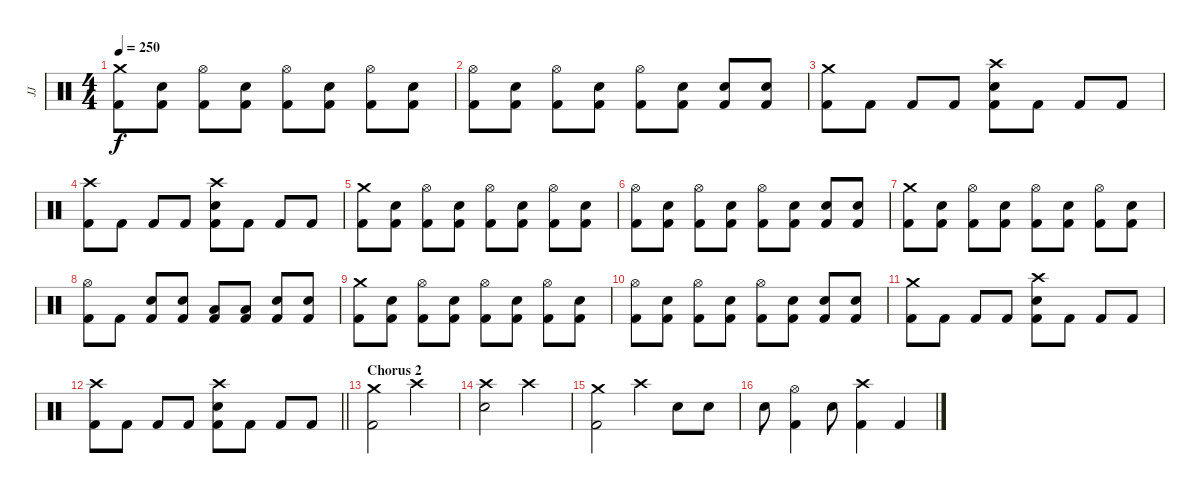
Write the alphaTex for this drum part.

\track ("JJ" "JJ") {instrument percussion}
\staff {score}
\articulation defaults
\ts (4 4)
\tempo 250
\clef neutral
\ks c
("Crash medium (hit)" "Kick (hit) 2").8{dy f} ("Electric Snare (hit)" "Kick (hit) 2").8 ("Hi-Hat (open)" "Kick (hit) 2").8 ("Electric Snare (hit)" "Kick (hit) 2").8 ("Hi-Hat (open)" "Kick (hit) 2").8 ("Electric Snare (hit)" "Kick (hit) 2").8 ("Hi-Hat (open)" "Kick (hit) 2").8 ("Electric Snare (hit)" "Kick (hit) 2").8 |
("Hi-Hat (open)" "Kick (hit) 2").8 ("Electric Snare (hit)" "Kick (hit) 2").8 ("Hi-Hat (open)" "Kick (hit) 2").8 ("Electric Snare (hit)" "Kick (hit) 2").8 ("Hi-Hat (open)" "Kick (hit) 2").8 ("Electric Snare (hit)" "Kick (hit) 2").8 ("Electric Snare (hit)" "Kick (hit) 2").8 ("Electric Snare (hit)" "Kick (hit) 2").8 |
("Crash medium (hit)" "Kick (hit) 2").8 "Kick (hit) 2".8 "Kick (hit) 2".8 "Kick (hit) 2".8 ("Crash high (hit)" "Electric Snare (hit)" "Kick (hit) 2").8 "Kick (hit) 2".8 "Kick (hit) 2".8 "Kick (hit) 2".8 |
("Crash high (hit)" "Kick (hit) 2").8 "Kick (hit) 2".8 "Kick (hit) 2".8 "Kick (hit) 2".8 ("Crash high (hit)" "Electric Snare (hit)" "Kick (hit) 2").8 "Kick (hit) 2".8 "Kick (hit) 2".8 "Kick (hit) 2".8 |
("Crash medium (hit)" "Kick (hit) 2").8 ("Electric Snare (hit)" "Kick (hit) 2").8 ("Hi-Hat (open)" "Kick (hit) 2").8 ("Electric Snare (hit)" "Kick (hit) 2").8 ("Hi-Hat (open)" "Kick (hit) 2").8 ("Electric Snare (hit)" "Kick (hit) 2").8 ("Hi-Hat (open)" "Kick (hit) 2").8 ("Electric Snare (hit)" "Kick (hit) 2").8 |
("Hi-Hat (open)" "Kick (hit) 2").8 ("Electric Snare (hit)" "Kick (hit) 2").8 ("Hi-Hat (open)" "Kick (hit) 2").8 ("Electric Snare (hit)" "Kick (hit) 2").8 ("Hi-Hat (open)" "Kick (hit) 2").8 ("Electric Snare (hit)" "Kick (hit) 2").8 ("Electric Snare (hit)" "Kick (hit) 2").8 ("Electric Snare (hit)" "Kick (hit) 2").8 |
("Crash medium (hit)" "Kick (hit) 2").8 ("Electric Snare (hit)" "Kick (hit) 2").8 ("Hi-Hat (open)" "Kick (hit) 2").8 ("Electric Snare (hit)" "Kick (hit) 2").8 ("Hi-Hat (open)" "Kick (hit) 2").8 ("Electric Snare (hit)" "Kick (hit) 2").8 ("Hi-Hat (open)" "Kick (hit) 2").8 ("Electric Snare (hit)" "Kick (hit) 2").8 |
("Hi-Hat (open)" "Kick (hit) 2").8 "Kick (hit) 2".8 ("Electric Snare (hit)" "Kick (hit) 2").8 ("Electric Snare (hit)" "Kick (hit) 2").8 ("Low Floor Tom (hit)" "Kick (hit) 2").8 ("Low Floor Tom (hit)" "Kick (hit) 2").8 ("Electric Snare (hit)" "Kick (hit) 2").8 ("Electric Snare (hit)" "Kick (hit) 2").8 |
("Crash medium (hit)" "Kick (hit) 2").8 ("Electric Snare (hit)" "Kick (hit) 2").8 ("Hi-Hat (open)" "Kick (hit) 2").8 ("Electric Snare (hit)" "Kick (hit) 2").8 ("Hi-Hat (open)" "Kick (hit) 2").8 ("Electric Snare (hit)" "Kick (hit) 2").8 ("Hi-Hat (open)" "Kick (hit) 2").8 ("Electric Snare (hit)" "Kick (hit) 2").8 |
("Hi-Hat (open)" "Kick (hit) 2").8 ("Electric Snare (hit)" "Kick (hit) 2").8 ("Hi-Hat (open)" "Kick (hit) 2").8 ("Electric Snare (hit)" "Kick (hit) 2").8 ("Hi-Hat (open)" "Kick (hit) 2").8 ("Electric Snare (hit)" "Kick (hit) 2").8 ("Electric Snare (hit)" "Kick (hit) 2").8 ("Electric Snare (hit)" "Kick (hit) 2").8 |
("Crash medium (hit)" "Kick (hit) 2").8 "Kick (hit) 2".8 "Kick (hit) 2".8 "Kick (hit) 2".8 ("Crash high (hit)" "Electric Snare (hit)" "Kick (hit) 2").8 "Kick (hit) 2".8 "Kick (hit) 2".8 "Kick (hit) 2".8 |
\barLineRight lightlight
("Crash high (hit)" "Kick (hit) 2").8 "Kick (hit) 2".8 "Kick (hit) 2".8 "Kick (hit) 2".8 ("Crash high (hit)" "Electric Snare (hit)" "Kick (hit) 2").8 "Kick (hit) 2".8 "Kick (hit) 2".8 "Kick (hit) 2".8 |
\section ("" "Chorus 2")
("Crash medium (hit)" "Kick (hit) 2").2 "Crash high (hit)".2 |
("Crash high (hit)" "Electric Snare (hit)").2 "Crash high (hit)".2 |
("Crash medium (hit)" "Kick (hit) 2").2 "Crash high (hit)".4 "Electric Snare (hit)".8 "Electric Snare (hit)".8 |
"Electric Snare (hit)".8 ("Hi-Hat (open)" "Kick (hit) 2").4 "Electric Snare (hit)".8 ("Crash high (hit)" "Kick (hit) 2").4 "Kick (hit) 2".4
